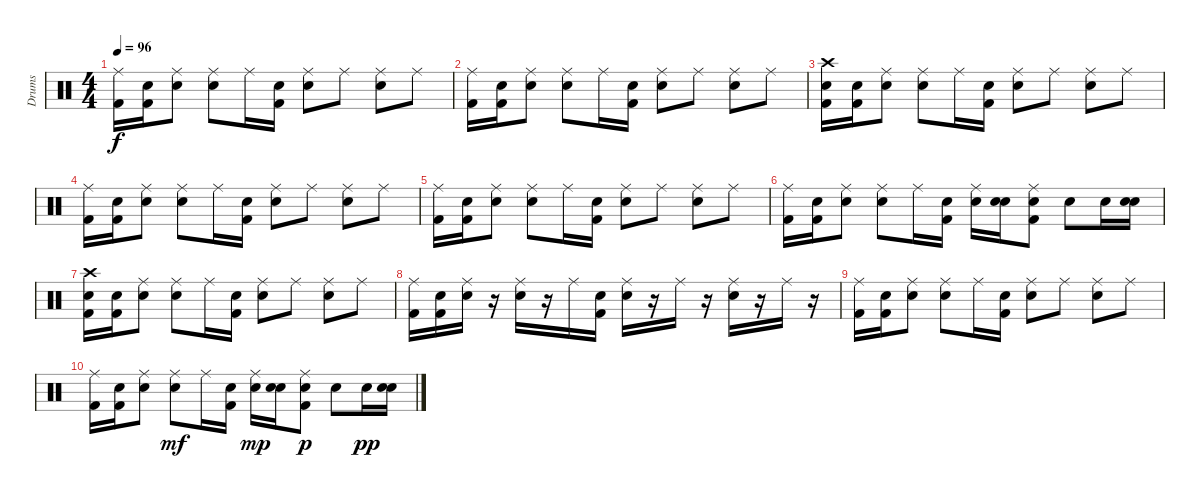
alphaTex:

\track ("Drums" "Drums") {instrument percussion}
\staff {score}
\articulation defaults
\ts (4 4)
\tempo 96
\clef neutral
\ks c
("Ride (middle)" "Kick (hit) 2").16{dy f} ("Snare (hit)" "Kick (hit) 2").16 ("Snare (hit)" "Ride (middle)").8 ("Snare (hit) 2" "Ride (middle)").8 "Ride (middle)".16 ("Snare (hit)" "Kick (hit) 2").16 ("Snare (hit)" "Ride (middle)").8 "Ride (middle)".8 ("Snare (hit) 2" "Ride (middle)").8 "Ride (middle)".8 |
("Ride (middle)" "Kick (hit) 2").16 ("Snare (hit)" "Kick (hit) 2").16 ("Snare (hit)" "Ride (middle)").8 ("Snare (hit) 2" "Ride (middle)").8 "Ride (middle)".16 ("Snare (hit)" "Kick (hit) 2").16 ("Snare (hit)" "Ride (middle)").8 "Ride (middle)".8 ("Snare (hit) 2" "Ride (middle)").8 "Ride (middle)".8 |
("Snare (hit)" "Crash high (hit)" "Kick (hit) 2").16 ("Snare (hit)" "Kick (hit) 2").16 ("Snare (hit)" "Ride (middle)").8 ("Snare (hit) 2" "Ride (middle)").8 "Ride (middle)".16 ("Snare (hit)" "Kick (hit) 2").16 ("Snare (hit)" "Ride (middle)").8 "Ride (middle)".8 ("Snare (hit) 2" "Ride (middle)").8 "Ride (middle)".8 |
("Ride (middle)" "Kick (hit) 2").16 ("Snare (hit)" "Kick (hit) 2").16 ("Snare (hit)" "Ride (middle)").8 ("Snare (hit) 2" "Ride (middle)").8 "Ride (middle)".16 ("Snare (hit)" "Kick (hit) 2").16 ("Snare (hit)" "Ride (middle)").8 "Ride (middle)".8 ("Snare (hit) 2" "Ride (middle)").8 "Ride (middle)".8 |
("Ride (middle)" "Kick (hit) 2").16 ("Snare (hit)" "Kick (hit) 2").16 ("Snare (hit)" "Ride (middle)").8 ("Snare (hit) 2" "Ride (middle)").8 "Ride (middle)".16 ("Snare (hit)" "Kick (hit) 2").16 ("Snare (hit)" "Ride (middle)").8 "Ride (middle)".8 ("Snare (hit) 2" "Ride (middle)").8 "Ride (middle)".8 |
("Ride (middle)" "Kick (hit) 2").16 ("Snare (hit)" "Kick (hit) 2").16 ("Snare (hit)" "Ride (middle)").8 ("Snare (hit) 2" "Ride (middle)").8 "Ride (middle)".16 ("Snare (hit)" "Kick (hit) 2").16 ("Snare (hit)" "Ride (middle)").16 ("Snare (hit)" "Snare (hit) 2").16 ("Snare (hit)" "Kick (hit) 2" "Ride (middle)").8 "Snare (hit) 2".8 "Snare (hit) 2".16 ("Snare (hit)" "Snare (hit) 2").16 |
("Snare (hit)" "Crash high (hit)" "Kick (hit) 2").16 ("Snare (hit)" "Kick (hit) 2").16 ("Snare (hit)" "Ride (middle)").8 ("Snare (hit) 2" "Ride (middle)").8 "Ride (middle)".16 ("Snare (hit)" "Kick (hit) 2").16 ("Snare (hit)" "Ride (middle)").8 "Ride (middle)".8 ("Snare (hit) 2" "Ride (middle)").8 "Ride (middle)".8 |
("Ride (middle)" "Kick (hit) 2").16 ("Snare (hit)" "Kick (hit) 2").16 ("Snare (hit)" "Ride (middle)").16 r.16 ("Snare (hit) 2" "Ride (middle)").16 r.16 "Ride (middle)".16 ("Snare (hit)" "Kick (hit) 2").16 ("Snare (hit)" "Ride (middle)").16 r.16 "Ride (middle)".16 r.16 ("Snare (hit) 2" "Ride (middle)").16 r.16 "Ride (middle)".16 r.16 |
("Ride (middle)" "Kick (hit) 2").16 ("Snare (hit)" "Kick (hit) 2").16 ("Snare (hit)" "Ride (middle)").8 ("Snare (hit) 2" "Ride (middle)").8 "Ride (middle)".16 ("Snare (hit)" "Kick (hit) 2").16 ("Snare (hit)" "Ride (middle)").8 "Ride (middle)".8 ("Snare (hit) 2" "Ride (middle)").8 "Ride (middle)".8 |
("Ride (middle)" "Kick (hit) 2").16{txt ""} ("Snare (hit)" "Kick (hit) 2").16 ("Snare (hit)" "Ride (middle)").8 ("Snare (hit) 2" "Ride (middle)").8{dy mf} "Ride (middle)".16 ("Snare (hit)" "Kick (hit) 2").16 ("Snare (hit)" "Ride (middle)").16{dy mp} ("Snare (hit)" "Snare (hit) 2").16 ("Snare (hit)" "Kick (hit) 2" "Ride (middle)").8{dy p} "Snare (hit) 2".8 "Snare (hit) 2".16{dy pp} ("Snare (hit)" "Snare (hit) 2").16
